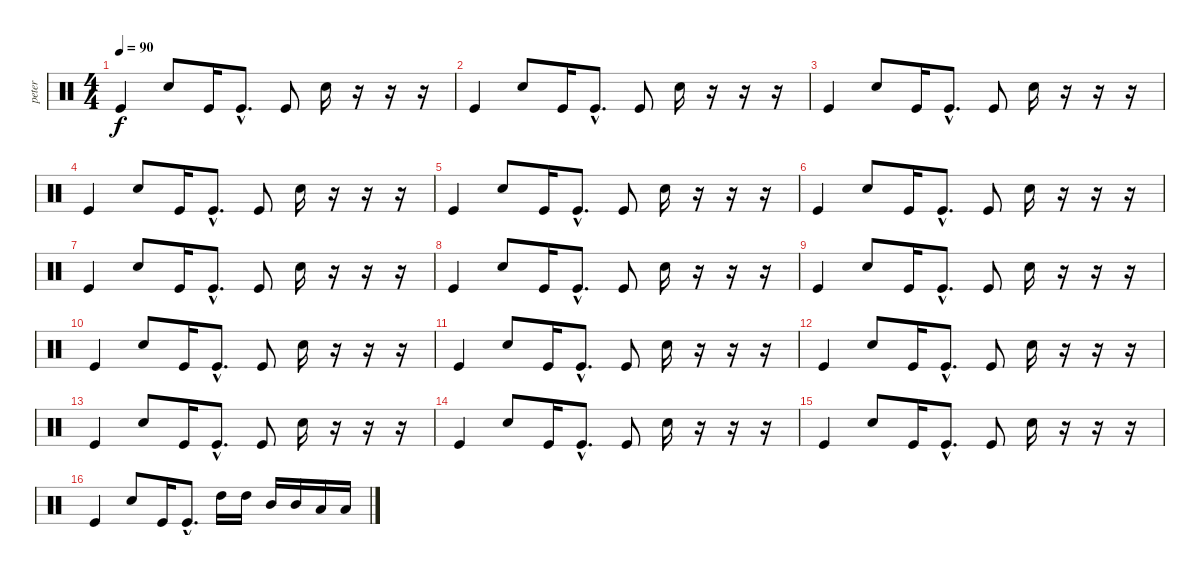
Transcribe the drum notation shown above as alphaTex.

\track ("peter" "peter") {instrument percussion}
\staff {score}
\articulation defaults
\ts (4 4)
\tempo 90
\clef neutral
\ks c "Kick (hit)".4{dy f} "Electric Snare (hit)".8 "Kick (hit)".16 "Kick (hit)"{hac}.8{d} "Kick (hit)".8 "Electric Snare (hit)".16
r.16 r.16 r.16 |
"Kick (hit)".4 "Electric Snare (hit)".8 "Kick (hit)".16 "Kick (hit)"{hac}.8{d} "Kick (hit)".8 "Electric Snare (hit)".16 r.16 r.16 r.16 |
"Kick (hit)".4 "Electric Snare (hit)".8 "Kick (hit)".16 "Kick (hit)"{hac}.8{d} "Kick (hit)".8 "Electric Snare (hit)".16 r.16 r.16 r.16 |
"Kick (hit)".4 "Electric Snare (hit)".8 "Kick (hit)".16 "Kick (hit)"{hac}.8{d} "Kick (hit)".8 "Electric Snare (hit)".16 r.16 r.16 r.16 |
"Kick (hit)".4 "Electric Snare (hit)".8 "Kick (hit)".16 "Kick (hit)"{hac}.8{d} "Kick (hit)".8 "Electric Snare (hit)".16 r.16 r.16 r.16 |
"Kick (hit)".4 "Electric Snare (hit)".8 "Kick (hit)".16 "Kick (hit)"{hac}.8{d} "Kick (hit)".8 "Electric Snare (hit)".16 r.16 r.16 r.16 |
"Kick (hit)".4 "Electric Snare (hit)".8 "Kick (hit)".16 "Kick (hit)"{hac}.8{d} "Kick (hit)".8 "Electric Snare (hit)".16 r.16 r.16 r.16 |
"Kick (hit)".4 "Electric Snare (hit)".8 "Kick (hit)".16 "Kick (hit)"{hac}.8{d} "Kick (hit)".8 "Electric Snare (hit)".16 r.16 r.16 r.16 |
"Kick (hit)".4 "Electric Snare (hit)".8 "Kick (hit)".16 "Kick (hit)"{hac}.8{d} "Kick (hit)".8 "Electric Snare (hit)".16 r.16 r.16 r.16 |
"Kick (hit)".4 "Electric Snare (hit)".8 "Kick (hit)".16 "Kick (hit)"{hac}.8{d} "Kick (hit)".8 "Electric Snare (hit)".16 r.16 r.16 r.16 |
"Kick (hit)".4 "Electric Snare (hit)".8 "Kick (hit)".16 "Kick (hit)"{hac}.8{d} "Kick (hit)".8 "Electric Snare (hit)".16 r.16 r.16 r.16 |
"Kick (hit)".4 "Electric Snare (hit)".8 "Kick (hit)".16 "Kick (hit)"{hac}.8{d} "Kick (hit)".8 "Electric Snare (hit)".16 r.16 r.16 r.16 |
"Kick (hit)".4 "Electric Snare (hit)".8 "Kick (hit)".16 "Kick (hit)"{hac}.8{d} "Kick (hit)".8 "Electric Snare (hit)".16 r.16 r.16 r.16 |
"Kick (hit)".4 "Electric Snare (hit)".8 "Kick (hit)".16 "Kick (hit)"{hac}.8{d} "Kick (hit)".8 "Electric Snare (hit)".16 r.16 r.16 r.16 |
"Kick (hit)".4 "Electric Snare (hit)".8 "Kick (hit)".16 "Kick (hit)"{hac}.8{d} "Kick (hit)".8 "Electric Snare (hit)".16 r.16 r.16 r.16 |
"Kick (hit)".4 "Electric Snare (hit)".8 "Kick (hit)".16 "Kick (hit)"{hac}.8{d} "High Tom (hit)".16 "High Tom (hit)".16 "Mid Tom (hit)".16 "Mid Tom (hit)".16 "Low Tom (hit)".16 "Low Tom (hit)".16
